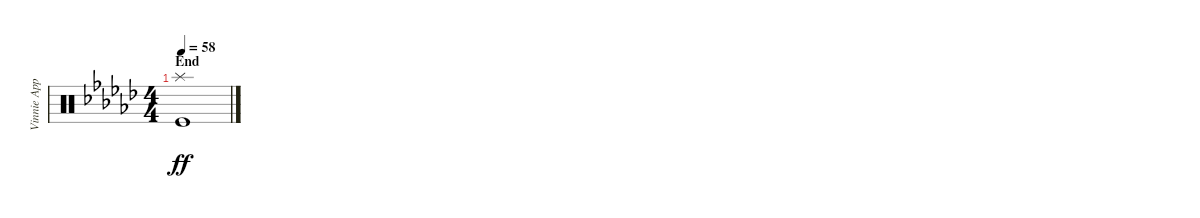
\track ("Vinnie Appice" "Vinnie App") {instrument percussion}
\staff {score}
\articulation defaults
\ts (4 4)
\section ("" "End")
\tempo 58
\clef neutral
\ks ebminor
("Kick (hit)" "Splash (hit)").1{dy ff}
